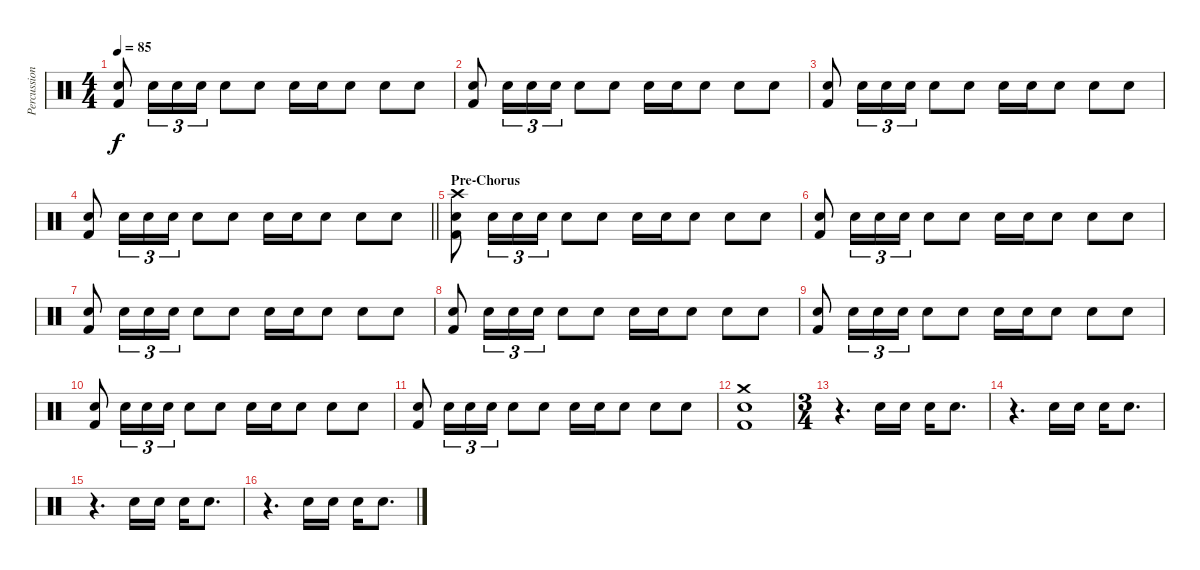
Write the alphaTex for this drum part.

\track ("Percussion" "Percussion") {instrument percussion}
\staff {score}
\articulation defaults
\ts (4 4)
\tempo 85
\clef neutral
\ks c
("Electric Snare (hit)" "Kick (hit) 2").8{dy f} "Electric Snare (hit)".16{tu (3 2)} "Electric Snare (hit)".16{tu (3 2)} "Electric Snare (hit)".16{tu (3 2)} "Electric Snare (hit)".8 "Electric Snare (hit)".8 "Electric Snare (hit)".16 "Electric Snare (hit)".16 "Electric Snare (hit)".8 "Electric Snare (hit)".8 "Electric Snare (hit)".8 |
("Electric Snare (hit)" "Kick (hit) 2").8 "Electric Snare (hit)".16{tu (3 2)} "Electric Snare (hit)".16{tu (3 2)} "Electric Snare (hit)".16{tu (3 2)} "Electric Snare (hit)".8 "Electric Snare (hit)".8 "Electric Snare (hit)".16 "Electric Snare (hit)".16 "Electric Snare (hit)".8 "Electric Snare (hit)".8 "Electric Snare (hit)".8 |
("Electric Snare (hit)" "Kick (hit) 2").8 "Electric Snare (hit)".16{tu (3 2)} "Electric Snare (hit)".16{tu (3 2)} "Electric Snare (hit)".16{tu (3 2)} "Electric Snare (hit)".8 "Electric Snare (hit)".8 "Electric Snare (hit)".16 "Electric Snare (hit)".16 "Electric Snare (hit)".8 "Electric Snare (hit)".8 "Electric Snare (hit)".8 |
\barLineRight lightlight
("Electric Snare (hit)" "Kick (hit) 2").8 "Electric Snare (hit)".16{tu (3 2)} "Electric Snare (hit)".16{tu (3 2)} "Electric Snare (hit)".16{tu (3 2)} "Electric Snare (hit)".8 "Electric Snare (hit)".8 "Electric Snare (hit)".16 "Electric Snare (hit)".16 "Electric Snare (hit)".8 "Electric Snare (hit)".8 "Electric Snare (hit)".8 |
\section ("" "Pre-Chorus")
("Crash high (hit)" "Electric Snare (hit)" "Kick (hit) 2").8 "Electric Snare (hit)".16{tu (3 2)} "Electric Snare (hit)".16{tu (3 2)} "Electric Snare (hit)".16{tu (3 2)} "Electric Snare (hit)".8 "Electric Snare (hit)".8 "Electric Snare (hit)".16 "Electric Snare (hit)".16 "Electric Snare (hit)".8 "Electric Snare (hit)".8 "Electric Snare (hit)".8 |
("Electric Snare (hit)" "Kick (hit) 2").8 "Electric Snare (hit)".16{tu (3 2)} "Electric Snare (hit)".16{tu (3 2)} "Electric Snare (hit)".16{tu (3 2)} "Electric Snare (hit)".8 "Electric Snare (hit)".8 "Electric Snare (hit)".16 "Electric Snare (hit)".16 "Electric Snare (hit)".8 "Electric Snare (hit)".8 "Electric Snare (hit)".8 |
("Electric Snare (hit)" "Kick (hit) 2").8 "Electric Snare (hit)".16{tu (3 2)} "Electric Snare (hit)".16{tu (3 2)} "Electric Snare (hit)".16{tu (3 2)} "Electric Snare (hit)".8 "Electric Snare (hit)".8 "Electric Snare (hit)".16 "Electric Snare (hit)".16 "Electric Snare (hit)".8 "Electric Snare (hit)".8 "Electric Snare (hit)".8 |
("Electric Snare (hit)" "Kick (hit) 2").8 "Electric Snare (hit)".16{tu (3 2)} "Electric Snare (hit)".16{tu (3 2)} "Electric Snare (hit)".16{tu (3 2)} "Electric Snare (hit)".8 "Electric Snare (hit)".8 "Electric Snare (hit)".16 "Electric Snare (hit)".16 "Electric Snare (hit)".8 "Electric Snare (hit)".8 "Electric Snare (hit)".8 |
("Electric Snare (hit)" "Kick (hit) 2").8 "Electric Snare (hit)".16{tu (3 2)} "Electric Snare (hit)".16{tu (3 2)} "Electric Snare (hit)".16{tu (3 2)} "Electric Snare (hit)".8 "Electric Snare (hit)".8 "Electric Snare (hit)".16 "Electric Snare (hit)".16 "Electric Snare (hit)".8 "Electric Snare (hit)".8 "Electric Snare (hit)".8 |
("Electric Snare (hit)" "Kick (hit) 2").8 "Electric Snare (hit)".16{tu (3 2)} "Electric Snare (hit)".16{tu (3 2)} "Electric Snare (hit)".16{tu (3 2)} "Electric Snare (hit)".8 "Electric Snare (hit)".8 "Electric Snare (hit)".16 "Electric Snare (hit)".16 "Electric Snare (hit)".8 "Electric Snare (hit)".8 "Electric Snare (hit)".8 |
("Electric Snare (hit)" "Kick (hit) 2").8 "Electric Snare (hit)".16{tu (3 2)} "Electric Snare (hit)".16{tu (3 2)} "Electric Snare (hit)".16{tu (3 2)} "Electric Snare (hit)".8 "Electric Snare (hit)".8 "Electric Snare (hit)".16 "Electric Snare (hit)".16 "Electric Snare (hit)".8 "Electric Snare (hit)".8 "Electric Snare (hit)".8 |
("Crash medium (hit)" "Electric Snare (hit)" "Kick (hit) 2").1 |
\ts (3 4)
r.4{d} "Electric Snare (hit)".16 "Electric Snare (hit)".16 "Electric Snare (hit)".16 "Electric Snare (hit)".8{d} |
r.4{d} "Electric Snare (hit)".16 "Electric Snare (hit)".16 "Electric Snare (hit)".16 "Electric Snare (hit)".8{d} |
r.4{d} "Electric Snare (hit)".16 "Electric Snare (hit)".16 "Electric Snare (hit)".16 "Electric Snare (hit)".8{d} |
r.4{d} "Electric Snare (hit)".16 "Electric Snare (hit)".16 "Electric Snare (hit)".16 "Electric Snare (hit)".8{d}
